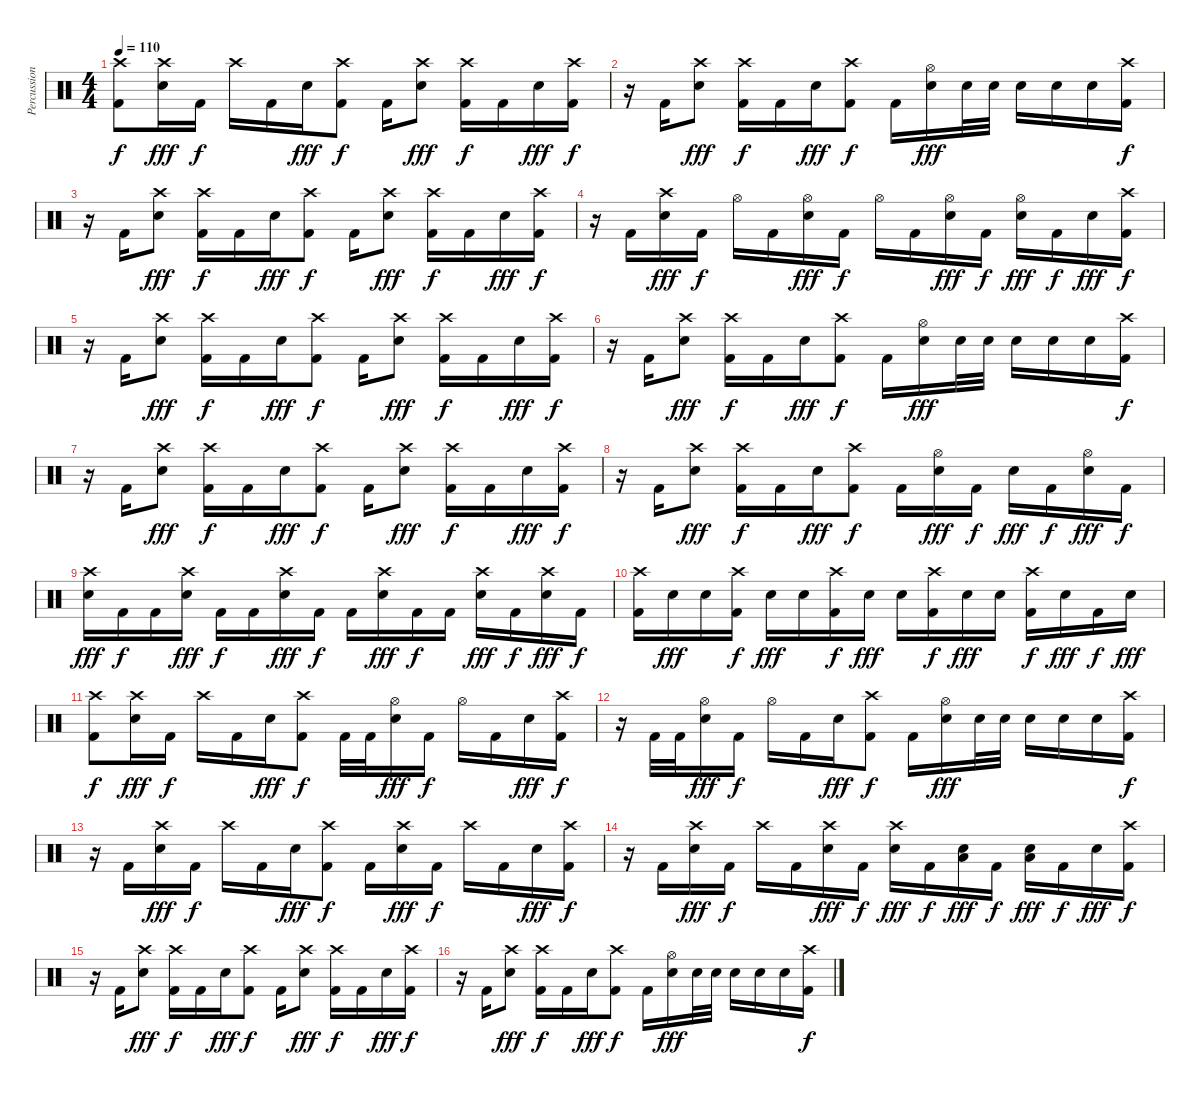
\track ("Percussions" "Percussion") {instrument percussion}
\staff {score}
\articulation defaults
\ts (4 4)
\tempo 110
\clef neutral
\ks c
("Crash high (hit)" "Kick (hit) 2").8{dy f} ("Crash high (hit)" "Snare (hit) 2").16{dy fff} "Kick (hit) 2".16{dy f} "Crash high (hit)".16 "Kick (hit) 2".16 "Snare (hit) 2".16{dy fff} ("Crash high (hit)" "Kick (hit) 2").8{dy f} "Kick (hit) 2".16 ("Crash high (hit)" "Snare (hit) 2").8{dy fff} ("Crash high (hit)" "Kick (hit) 2").16{dy f} "Kick (hit) 2".16 "Snare (hit) 2".16{dy fff} ("Crash high (hit)" "Kick (hit) 2").16{dy f} |
r.16 "Kick (hit) 2".16 ("Crash high (hit)" "Snare (hit) 2").8{dy fff} ("Crash high (hit)" "Kick (hit) 2").16{dy f} "Kick (hit) 2".16 "Snare (hit) 2".16{dy fff} ("Crash high (hit)" "Kick (hit) 2").8{dy f} "Kick (hit) 2".16 ("Hi-Hat (open)" "Snare (hit) 2").16{dy fff} "Snare (hit) 2".32 "Snare (hit) 2".32 "Snare (hit) 2".16 "Snare (hit) 2".16 "Snare (hit) 2".16 ("Crash high (hit)" "Kick (hit) 2").16{dy f} |
r.16 "Kick (hit) 2".16 ("Crash high (hit)" "Snare (hit) 2").8{dy fff} ("Crash high (hit)" "Kick (hit) 2").16{dy f} "Kick (hit) 2".16 "Snare (hit) 2".16{dy fff} ("Crash high (hit)" "Kick (hit) 2").8{dy f} "Kick (hit) 2".16 ("Crash high (hit)" "Snare (hit) 2").8{dy fff} ("Crash high (hit)" "Kick (hit) 2").16{dy f} "Kick (hit) 2".16 "Snare (hit) 2".16{dy fff} ("Crash high (hit)" "Kick (hit) 2").16{dy f} |
r.16 "Kick (hit) 2".16 ("Crash high (hit)" "Snare (hit) 2").16{dy fff} "Kick (hit) 2".16{dy f} "Hi-Hat (open)".16 "Kick (hit) 2".16 ("Hi-Hat (open)" "Snare (hit) 2").16{dy fff} "Kick (hit) 2".16{dy f} "Hi-Hat (open)".16 "Kick (hit) 2".16 ("Hi-Hat (open)" "Snare (hit) 2").16{dy fff} "Kick (hit) 2".16{dy f} ("Hi-Hat (open)" "Snare (hit) 2").16{dy fff} "Kick (hit) 2".16{dy f} "Snare (hit) 2".16{dy fff} ("Crash high (hit)" "Kick (hit) 2").16{dy f} |
r.16 "Kick (hit) 2".16 ("Crash high (hit)" "Snare (hit) 2").8{dy fff} ("Crash high (hit)" "Kick (hit) 2").16{dy f} "Kick (hit) 2".16 "Snare (hit) 2".16{dy fff} ("Crash high (hit)" "Kick (hit) 2").8{dy f} "Kick (hit) 2".16 ("Crash high (hit)" "Snare (hit) 2").8{dy fff} ("Crash high (hit)" "Kick (hit) 2").16{dy f} "Kick (hit) 2".16 "Snare (hit) 2".16{dy fff} ("Crash high (hit)" "Kick (hit) 2").16{dy f} |
r.16 "Kick (hit) 2".16 ("Crash high (hit)" "Snare (hit) 2").8{dy fff} ("Crash high (hit)" "Kick (hit) 2").16{dy f} "Kick (hit) 2".16 "Snare (hit) 2".16{dy fff} ("Crash high (hit)" "Kick (hit) 2").8{dy f} "Kick (hit) 2".16 ("Hi-Hat (open)" "Snare (hit) 2").16{dy fff} "Snare (hit) 2".32 "Snare (hit) 2".32 "Snare (hit) 2".16 "Snare (hit) 2".16 "Snare (hit) 2".16 ("Crash high (hit)" "Kick (hit) 2").16{dy f} |
r.16 "Kick (hit) 2".16 ("Crash high (hit)" "Snare (hit) 2").8{dy fff} ("Crash high (hit)" "Kick (hit) 2").16{dy f} "Kick (hit) 2".16 "Snare (hit) 2".16{dy fff} ("Crash high (hit)" "Kick (hit) 2").8{dy f} "Kick (hit) 2".16 ("Crash high (hit)" "Snare (hit) 2").8{dy fff} ("Crash high (hit)" "Kick (hit) 2").16{dy f} "Kick (hit) 2".16 "Snare (hit) 2".16{dy fff} ("Crash high (hit)" "Kick (hit) 2").16{dy f} |
r.16 "Kick (hit) 2".16 ("Crash high (hit)" "Snare (hit) 2").8{dy fff} ("Crash high (hit)" "Kick (hit) 2").16{dy f} "Kick (hit) 2".16 "Snare (hit) 2".16{dy fff} ("Crash high (hit)" "Kick (hit) 2").8{dy f} "Kick (hit) 2".16 ("Hi-Hat (open)" "Snare (hit) 2").16{dy fff} "Kick (hit) 2".16{dy f} "Snare (hit) 2".16{dy fff} "Kick (hit) 2".16{dy f} ("Hi-Hat (open)" "Snare (hit) 2").16{dy fff} "Kick (hit) 2".16{dy f} |
("Crash high (hit)" "Snare (hit) 2").16{dy fff} "Kick (hit) 2".16{dy f} "Kick (hit) 2".16 ("Crash high (hit)" "Snare (hit) 2").16{dy fff} "Kick (hit) 2".16{dy f} "Kick (hit) 2".16 ("Crash high (hit)" "Snare (hit) 2").16{dy fff} "Kick (hit) 2".16{dy f} "Kick (hit) 2".16 ("Crash high (hit)" "Snare (hit) 2").16{dy fff} "Kick (hit) 2".16{dy f} "Kick (hit) 2".16 ("Crash high (hit)" "Snare (hit) 2").16{dy fff} "Kick (hit) 2".16{dy f} ("Crash high (hit)" "Snare (hit) 2").16{dy fff} "Kick (hit) 2".16{dy f} |
("Crash high (hit)" "Kick (hit) 2").16 "Snare (hit) 2".16{dy fff} "Snare (hit) 2".16 ("Crash high (hit)" "Kick (hit) 2").16{dy f} "Snare (hit) 2".16{dy fff} "Snare (hit) 2".16 ("Crash high (hit)" "Kick (hit) 2").16{dy f} "Snare (hit) 2".16{dy fff} "Snare (hit) 2".16 ("Crash high (hit)" "Kick (hit) 2").16{dy f} "Snare (hit) 2".16{dy fff} "Snare (hit) 2".16 ("Crash high (hit)" "Kick (hit) 2").16{dy f} "Snare (hit) 2".16{dy fff} "Kick (hit) 2".16{dy f} "Snare (hit) 2".16{dy fff} |
("Crash high (hit)" "Kick (hit) 2").8{dy f} ("Crash high (hit)" "Snare (hit) 2").16{dy fff} "Kick (hit) 2".16{dy f} "Crash high (hit)".16 "Kick (hit) 2".16 "Snare (hit) 2".16{dy fff} ("Crash high (hit)" "Kick (hit) 2").8{dy f} "Kick (hit) 2".32 "Kick (hit) 2".32 ("Hi-Hat (open)" "Snare (hit) 2").16{dy fff} "Kick (hit) 2".16{dy f} "Hi-Hat (open)".16 "Kick (hit) 2".16 "Snare (hit) 2".16{dy fff} ("Crash high (hit)" "Kick (hit) 2").16{dy f} |
r.16 "Kick (hit) 2".32 "Kick (hit) 2".32 ("Hi-Hat (open)" "Snare (hit) 2").16{dy fff} "Kick (hit) 2".16{dy f} "Hi-Hat (open)".16 "Kick (hit) 2".16 "Snare (hit) 2".16{dy fff} ("Crash high (hit)" "Kick (hit) 2").8{dy f} "Kick (hit) 2".16 ("Hi-Hat (open)" "Snare (hit) 2").16{dy fff} "Snare (hit) 2".32 "Snare (hit) 2".32 "Snare (hit) 2".16 "Snare (hit) 2".16 "Snare (hit) 2".16 ("Crash high (hit)" "Kick (hit) 2").16{dy f} |
r.16 "Kick (hit) 2".16 ("Crash high (hit)" "Snare (hit) 2").16{dy fff} "Kick (hit) 2".16{dy f} "Crash high (hit)".16 "Kick (hit) 2".16 "Snare (hit) 2".16{dy fff} ("Crash high (hit)" "Kick (hit) 2").8{dy f} "Kick (hit) 2".16 ("Crash high (hit)" "Snare (hit) 2").16{dy fff} "Kick (hit) 2".16{dy f} "Crash high (hit)".16 "Kick (hit) 2".16 "Snare (hit) 2".16{dy fff} ("Crash high (hit)" "Kick (hit) 2").16{dy f} |
r.16 "Kick (hit) 2".16 ("Crash high (hit)" "Snare (hit) 2").16{dy fff} "Kick (hit) 2".16{dy f} "Crash high (hit)".16 "Kick (hit) 2".16 ("Crash high (hit)" "Snare (hit) 2").16{dy fff} "Kick (hit) 2".16{dy f} ("Crash high (hit)" "Snare (hit) 2").16{dy fff} "Kick (hit) 2".16{dy f} ("Low Floor Tom (hit)" "Snare (hit) 2").16{dy fff} "Kick (hit) 2".16{dy f} ("Low Floor Tom (hit)" "Snare (hit) 2").16{dy fff} "Kick (hit) 2".16{dy f} "Snare (hit) 2".16{dy fff} ("Crash high (hit)" "Kick (hit) 2").16{dy f} |
r.16 "Kick (hit) 2".16 ("Crash high (hit)" "Snare (hit) 2").8{dy fff} ("Crash high (hit)" "Kick (hit) 2").16{dy f} "Kick (hit) 2".16 "Snare (hit) 2".16{dy fff} ("Crash high (hit)" "Kick (hit) 2").8{dy f} "Kick (hit) 2".16 ("Crash high (hit)" "Snare (hit) 2").8{dy fff} ("Crash high (hit)" "Kick (hit) 2").16{dy f} "Kick (hit) 2".16 "Snare (hit) 2".16{dy fff} ("Crash high (hit)" "Kick (hit) 2").16{dy f} |
r.16 "Kick (hit) 2".16 ("Crash high (hit)" "Snare (hit) 2").8{dy fff} ("Crash high (hit)" "Kick (hit) 2").16{dy f} "Kick (hit) 2".16 "Snare (hit) 2".16{dy fff} ("Crash high (hit)" "Kick (hit) 2").8{dy f} "Kick (hit) 2".16 ("Hi-Hat (open)" "Snare (hit) 2").16{dy fff} "Snare (hit) 2".32 "Snare (hit) 2".32 "Snare (hit) 2".16 "Snare (hit) 2".16 "Snare (hit) 2".16 ("Crash high (hit)" "Kick (hit) 2").16{dy f}
